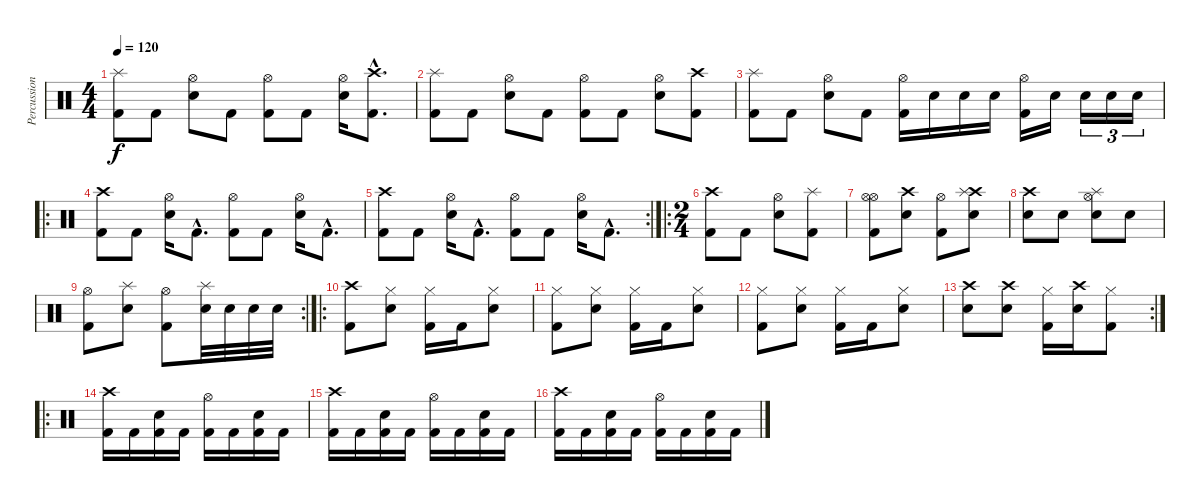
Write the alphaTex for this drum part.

\track ("Percussion" "Percussion") {instrument percussion}
\staff {score}
\articulation defaults
\ts (4 4)
\tempo 120
\clef neutral
\ks c
("Splash (hit)" "Kick (hit) 2").8{dy f} "Kick (hit) 2".8 ("Hi-Hat (open)" "Electric Snare (hit)").8 "Kick (hit) 2".8 ("Hi-Hat (open)" "Kick (hit) 2").8 "Kick (hit) 2".8 ("Hi-Hat (open)" "Electric Snare (hit)").16 ("Crash high (hit)"{hac} "Kick (hit) 2"{hac}).8{d} |
("Splash (hit)" "Kick (hit) 2").8 "Kick (hit) 2".8 ("Hi-Hat (open)" "Electric Snare (hit)").8 "Kick (hit) 2".8 ("Hi-Hat (open)" "Kick (hit) 2").8 "Kick (hit) 2".8 ("Hi-Hat (open)" "Electric Snare (hit)").8 ("Crash high (hit)" "Kick (hit) 2").8 |
("Splash (hit)" "Kick (hit) 2").8 "Kick (hit) 2".8 ("Hi-Hat (open)" "Electric Snare (hit)").8 "Kick (hit) 2".8 ("Hi-Hat (open)" "Kick (hit) 2").16 "Electric Snare (hit)".16 "Electric Snare (hit)".16 "Electric Snare (hit)".16 ("Hi-Hat (open)" "Kick (hit) 2").16 "Electric Snare (hit)".16 "Electric Snare (hit)".16{tu (3 2)} "Electric Snare (hit)".16{tu (3 2)} "Electric Snare (hit)".16{tu (3 2)} |
\ro
("Crash high (hit)" "Kick (hit) 2").8 "Kick (hit) 2".8 ("Hi-Hat (open)" "Electric Snare (hit)").16 "Kick (hit) 2"{hac}.8{d} ("Hi-Hat (open)" "Kick (hit) 2").8 "Kick (hit) 2".8 ("Hi-Hat (open)" "Electric Snare (hit)").16 "Kick (hit) 2"{hac}.8{d} |
\rc 2
("Crash high (hit)" "Kick (hit) 2").8 "Kick (hit) 2".8 ("Hi-Hat (open)" "Electric Snare (hit)").16 "Kick (hit) 2"{hac}.8{d} ("Hi-Hat (open)" "Kick (hit) 2").8 "Kick (hit) 2".8 ("Hi-Hat (open)" "Electric Snare (hit)").16 "Kick (hit) 2"{hac}.8{d} |
\ro
\ts (2 4)
("Crash high (hit)" "Kick (hit) 2").8 "Kick (hit) 2".8 ("Hi-Hat (open)" "Electric Snare (hit)").8 ("Kick (hit) 2" "Splash (hit)").8 |
("Hi-Hat (open)" "Kick (hit) 2" "Hi-Hat (open)").8 ("Crash high (hit)" "Electric Snare (hit)").8 ("Hi-Hat (open)" "Kick (hit) 2").8 ("Crash high (hit)" "Electric Snare (hit)" "Splash (hit)").8 |
("Crash high (hit)" "Electric Snare (hit)").8 "Electric Snare (hit)".8 ("Hi-Hat (open)" "Electric Snare (hit)" "Splash (hit)").8 "Electric Snare (hit)".8 |
\rc 2
("Hi-Hat (open)" "Kick (hit) 2").8 ("Electric Snare (hit)" "Splash (hit)").8 ("Hi-Hat (open)" "Kick (hit) 2").8 ("Electric Snare (hit)" "Splash (hit)").32 "Electric Snare (hit)".32 "Electric Snare (hit)".32 "Electric Snare (hit)".32 |
\ro
("Crash high (hit)" "Kick (hit) 2").8 ("Hi-Hat (closed)" "Electric Snare (hit)").8 ("Hi-Hat (closed)" "Kick (hit) 2").16 "Kick (hit) 2".16 ("Hi-Hat (closed)" "Electric Snare (hit)").8 |
("Hi-Hat (closed)" "Kick (hit) 2").8 ("Hi-Hat (closed)" "Electric Snare (hit)").8 ("Hi-Hat (closed)" "Kick (hit) 2").16 "Kick (hit) 2".16 ("Hi-Hat (closed)" "Electric Snare (hit)").8 |
("Hi-Hat (closed)" "Kick (hit) 2").8 ("Hi-Hat (closed)" "Electric Snare (hit)").8 ("Hi-Hat (closed)" "Kick (hit) 2").16 "Kick (hit) 2".16 ("Hi-Hat (closed)" "Electric Snare (hit)").8 |
\rc 2
("Crash high (hit)" "Electric Snare (hit)").8 ("Crash high (hit)" "Electric Snare (hit)").8 ("Hi-Hat (closed)" "Kick (hit) 2").16 ("Crash high (hit)" "Electric Snare (hit)").16 ("Hi-Hat (closed)" "Kick (hit) 2").8 |
\ro
("Crash high (hit)" "Kick (hit) 2").16 "Kick (hit) 2".16 ("Electric Snare (hit)" "Kick (hit) 2").16 "Kick (hit) 2".16 ("Hi-Hat (open)" "Kick (hit) 2").16 "Kick (hit) 2".16 ("Electric Snare (hit)" "Kick (hit) 2").16 "Kick (hit) 2".16 |
("Crash high (hit)" "Kick (hit) 2").16 "Kick (hit) 2".16 ("Electric Snare (hit)" "Kick (hit) 2").16 "Kick (hit) 2".16 ("Hi-Hat (open)" "Kick (hit) 2").16 "Kick (hit) 2".16 ("Electric Snare (hit)" "Kick (hit) 2").16 "Kick (hit) 2".16 |
("Crash high (hit)" "Kick (hit) 2").16 "Kick (hit) 2".16 ("Electric Snare (hit)" "Kick (hit) 2").16 "Kick (hit) 2".16 ("Hi-Hat (open)" "Kick (hit) 2").16 "Kick (hit) 2".16 ("Electric Snare (hit)" "Kick (hit) 2").16 "Kick (hit) 2".16
